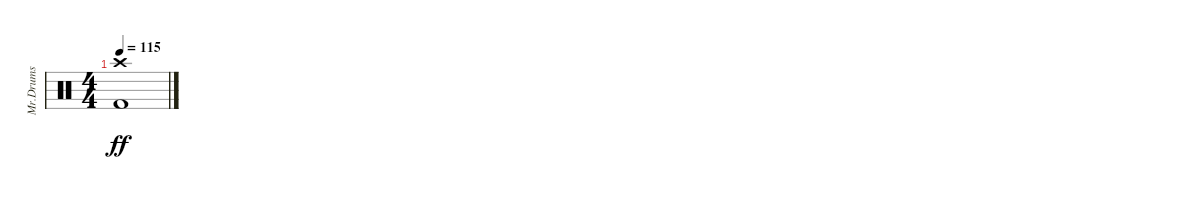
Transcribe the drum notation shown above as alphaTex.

\track ("Mr.Drums" "Mr.Drums") {instrument percussion}
\staff {score}
\articulation defaults
\ts (4 4)
\tempo 115
\clef neutral
\ks c
("Crash high (hit)" "Kick (hit) 2").1{dy ff}
